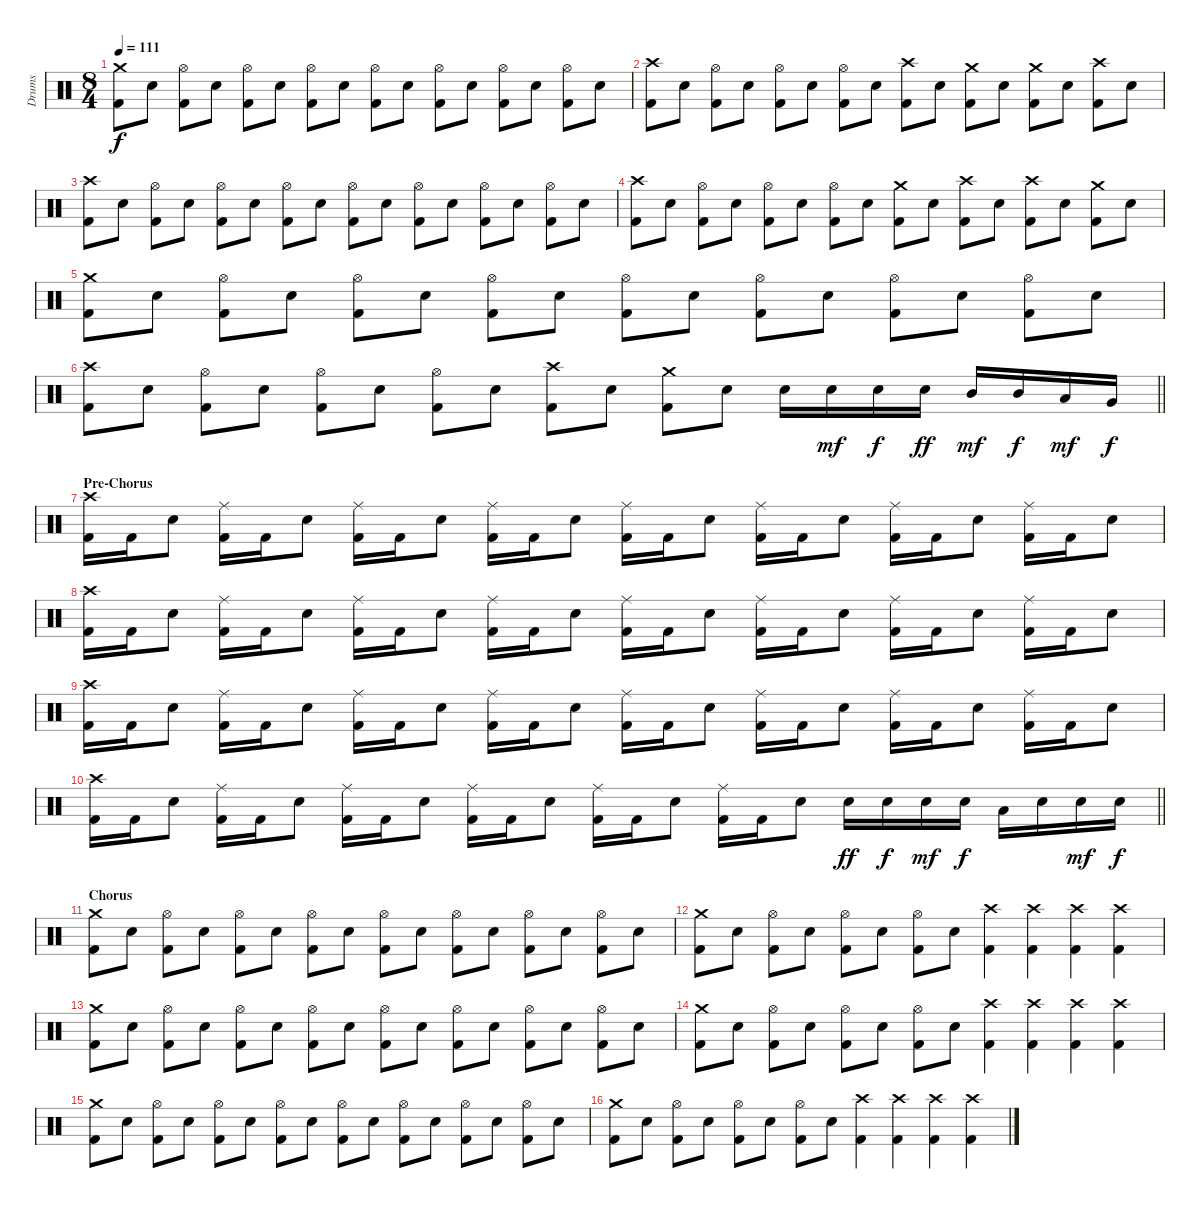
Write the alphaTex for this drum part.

\track ("Drums" "Drums") {instrument percussion}
\staff {score}
\articulation defaults
\ts (8 4)
\tempo 111
\clef neutral
\ks c
("Crash medium (hit)" "Kick (hit) 2").8{dy f} "Snare (hit) 2".8 ("Hi-Hat (open)" "Kick (hit) 2").8 "Snare (hit) 2".8 ("Hi-Hat (open)" "Kick (hit) 2").8 "Snare (hit) 2".8 ("Hi-Hat (open)" "Kick (hit) 2").8 "Snare (hit) 2".8 ("Hi-Hat (open)" "Kick (hit) 2").8 "Snare (hit) 2".8 ("Hi-Hat (open)" "Kick (hit) 2").8 "Snare (hit) 2".8 ("Hi-Hat (open)" "Kick (hit) 2").8 "Snare (hit) 2".8 ("Hi-Hat (open)" "Kick (hit) 2").8 "Snare (hit) 2".8 |
("Crash high (hit)" "Kick (hit) 2").8 "Snare (hit) 2".8 ("Hi-Hat (open)" "Kick (hit) 2").8 "Snare (hit) 2".8 ("Hi-Hat (open)" "Kick (hit) 2").8 "Snare (hit) 2".8 ("Hi-Hat (open)" "Kick (hit) 2").8 "Snare (hit) 2".8 ("Crash high (hit)" "Kick (hit) 2").8 "Snare (hit) 2".8 ("Crash medium (hit)" "Kick (hit) 2").8 "Snare (hit) 2".8 ("Crash medium (hit)" "Kick (hit) 2").8 "Snare (hit) 2".8 ("Crash high (hit)" "Kick (hit) 2").8 "Snare (hit) 2".8 |
("Crash high (hit)" "Kick (hit) 2").8 "Snare (hit) 2".8 ("Hi-Hat (open)" "Kick (hit) 2").8 "Snare (hit) 2".8 ("Hi-Hat (open)" "Kick (hit) 2").8 "Snare (hit) 2".8 ("Hi-Hat (open)" "Kick (hit) 2").8 "Snare (hit) 2".8 ("Hi-Hat (open)" "Kick (hit) 2").8 "Snare (hit) 2".8 ("Hi-Hat (open)" "Kick (hit) 2").8 "Snare (hit) 2".8 ("Hi-Hat (open)" "Kick (hit) 2").8 "Snare (hit) 2".8 ("Hi-Hat (open)" "Kick (hit) 2").8 "Snare (hit) 2".8 |
("Crash high (hit)" "Kick (hit) 2").8 "Snare (hit) 2".8 ("Hi-Hat (open)" "Kick (hit) 2").8 "Snare (hit) 2".8 ("Hi-Hat (open)" "Kick (hit) 2").8 "Snare (hit) 2".8 ("Hi-Hat (open)" "Kick (hit) 2").8 "Snare (hit) 2".8 ("Crash medium (hit)" "Kick (hit) 2").8 "Snare (hit) 2".8 ("Crash high (hit)" "Kick (hit) 2").8 "Snare (hit) 2".8 ("Crash high (hit)" "Kick (hit) 2").8 "Snare (hit) 2".8 ("Crash medium (hit)" "Kick (hit) 2").8 "Snare (hit) 2".8 |
("Crash medium (hit)" "Kick (hit) 2").8 "Snare (hit) 2".8 ("Hi-Hat (open)" "Kick (hit) 2").8 "Snare (hit) 2".8 ("Hi-Hat (open)" "Kick (hit) 2").8 "Snare (hit) 2".8 ("Hi-Hat (open)" "Kick (hit) 2").8 "Snare (hit) 2".8 ("Hi-Hat (open)" "Kick (hit) 2").8 "Snare (hit) 2".8 ("Hi-Hat (open)" "Kick (hit) 2").8 "Snare (hit) 2".8 ("Hi-Hat (open)" "Kick (hit) 2").8 "Snare (hit) 2".8 ("Hi-Hat (open)" "Kick (hit) 2").8 "Snare (hit) 2".8 |
\barLineRight lightlight
("Crash high (hit)" "Kick (hit) 2").8 "Snare (hit) 2".8 ("Hi-Hat (open)" "Kick (hit) 2").8 "Snare (hit) 2".8 ("Hi-Hat (open)" "Kick (hit) 2").8 "Snare (hit) 2".8 ("Hi-Hat (open)" "Kick (hit) 2").8 "Snare (hit) 2".8 ("Crash high (hit)" "Kick (hit) 2").8 "Snare (hit) 2".8 ("Crash medium (hit)" "Kick (hit) 2").8 "Snare (hit) 2".8 "Snare (hit) 2".16 "Snare (hit) 2".16{dy mf} "Snare (hit) 2".16{dy f} "Snare (hit) 2".16{dy ff} "Mid Tom (hit)".16{dy mf} "Mid Tom (hit)".16{dy f} "Low Tom (hit)".16{dy mf} "Very Low Tom (hit)".16{dy f} |
\section ("" "Pre-Chorus")
("Crash high (hit)" "Kick (hit) 2").16 "Kick (hit) 2".16 "Snare (hit) 2".8 ("Ride (middle)" "Kick (hit) 2").16 "Kick (hit) 2".16 "Snare (hit) 2".8 ("Ride (middle)" "Kick (hit) 2").16 "Kick (hit) 2".16 "Snare (hit) 2".8 ("Ride (middle)" "Kick (hit) 2").16 "Kick (hit) 2".16 "Snare (hit) 2".8 ("Ride (middle)" "Kick (hit) 2").16 "Kick (hit) 2".16 "Snare (hit) 2".8 ("Ride (middle)" "Kick (hit) 2").16 "Kick (hit) 2".16 "Snare (hit) 2".8 ("Ride (middle)" "Kick (hit) 2").16 "Kick (hit) 2".16 "Snare (hit) 2".8 ("Ride (middle)" "Kick (hit) 2").16 "Kick (hit) 2".16 "Snare (hit) 2".8 |
("Crash high (hit)" "Kick (hit) 2").16 "Kick (hit) 2".16 "Snare (hit) 2".8 ("Ride (middle)" "Kick (hit) 2").16 "Kick (hit) 2".16 "Snare (hit) 2".8 ("Ride (middle)" "Kick (hit) 2").16 "Kick (hit) 2".16 "Snare (hit) 2".8 ("Ride (middle)" "Kick (hit) 2").16 "Kick (hit) 2".16 "Snare (hit) 2".8 ("Ride (middle)" "Kick (hit) 2").16 "Kick (hit) 2".16 "Snare (hit) 2".8 ("Ride (middle)" "Kick (hit) 2").16 "Kick (hit) 2".16 "Snare (hit) 2".8 ("Ride (middle)" "Kick (hit) 2").16 "Kick (hit) 2".16 "Snare (hit) 2".8 ("Ride (middle)" "Kick (hit) 2").16 "Kick (hit) 2".16 "Snare (hit) 2".8 |
("Crash high (hit)" "Kick (hit) 2").16 "Kick (hit) 2".16 "Snare (hit) 2".8 ("Ride (middle)" "Kick (hit) 2").16 "Kick (hit) 2".16 "Snare (hit) 2".8 ("Ride (middle)" "Kick (hit) 2").16 "Kick (hit) 2".16 "Snare (hit) 2".8 ("Ride (middle)" "Kick (hit) 2").16 "Kick (hit) 2".16 "Snare (hit) 2".8 ("Ride (middle)" "Kick (hit) 2").16 "Kick (hit) 2".16 "Snare (hit) 2".8 ("Ride (middle)" "Kick (hit) 2").16 "Kick (hit) 2".16 "Snare (hit) 2".8 ("Ride (middle)" "Kick (hit) 2").16 "Kick (hit) 2".16 "Snare (hit) 2".8 ("Ride (middle)" "Kick (hit) 2").16 "Kick (hit) 2".16 "Snare (hit) 2".8 |
\barLineRight lightlight
("Crash high (hit)" "Kick (hit) 2").16 "Kick (hit) 2".16 "Snare (hit) 2".8 ("Ride (middle)" "Kick (hit) 2").16 "Kick (hit) 2".16 "Snare (hit) 2".8 ("Ride (middle)" "Kick (hit) 2").16 "Kick (hit) 2".16 "Snare (hit) 2".8 ("Ride (middle)" "Kick (hit) 2").16 "Kick (hit) 2".16 "Snare (hit) 2".8 ("Ride (middle)" "Kick (hit) 2").16 "Kick (hit) 2".16 "Snare (hit) 2".8 ("Ride (middle)" "Kick (hit) 2").16 "Kick (hit) 2".16 "Snare (hit) 2".8 "Snare (hit) 2".16{dy ff} "Snare (hit) 2".16{dy f} "Snare (hit) 2".16{dy mf} "Snare (hit) 2".16{dy f} "Low Tom (hit)".16 "Snare (hit) 2".16 "Snare (hit) 2".16{dy mf} "Snare (hit) 2".16{dy f} |
\section ("" "Chorus")
("Crash medium (hit)" "Kick (hit) 2").8 "Snare (hit) 2".8 ("Hi-Hat (open)" "Kick (hit) 2").8 "Snare (hit) 2".8 ("Hi-Hat (open)" "Kick (hit) 2").8 "Snare (hit) 2".8 ("Hi-Hat (open)" "Kick (hit) 2").8 "Snare (hit) 2".8 ("Hi-Hat (open)" "Kick (hit) 2").8 "Snare (hit) 2".8 ("Hi-Hat (open)" "Kick (hit) 2").8 "Snare (hit) 2".8 ("Hi-Hat (open)" "Kick (hit) 2").8 "Snare (hit) 2".8 ("Hi-Hat (open)" "Kick (hit) 2").8 "Snare (hit) 2".8 |
("Crash medium (hit)" "Kick (hit) 2").8 "Snare (hit) 2".8 ("Hi-Hat (open)" "Kick (hit) 2").8 "Snare (hit) 2".8 ("Hi-Hat (open)" "Kick (hit) 2").8 "Snare (hit) 2".8 ("Hi-Hat (open)" "Kick (hit) 2").8 "Snare (hit) 2".8 ("Crash high (hit)" "Kick (hit) 2").4 ("Crash high (hit)" "Kick (hit) 2").4 ("Crash high (hit)" "Kick (hit) 2").4 ("Crash high (hit)" "Kick (hit) 2").4 |
("Crash medium (hit)" "Kick (hit) 2").8 "Snare (hit) 2".8 ("Hi-Hat (open)" "Kick (hit) 2").8 "Snare (hit) 2".8 ("Hi-Hat (open)" "Kick (hit) 2").8 "Snare (hit) 2".8 ("Hi-Hat (open)" "Kick (hit) 2").8 "Snare (hit) 2".8 ("Hi-Hat (open)" "Kick (hit) 2").8 "Snare (hit) 2".8 ("Hi-Hat (open)" "Kick (hit) 2").8 "Snare (hit) 2".8 ("Hi-Hat (open)" "Kick (hit) 2").8 "Snare (hit) 2".8 ("Hi-Hat (open)" "Kick (hit) 2").8 "Snare (hit) 2".8 |
("Crash medium (hit)" "Kick (hit) 2").8 "Snare (hit) 2".8 ("Hi-Hat (open)" "Kick (hit) 2").8 "Snare (hit) 2".8 ("Hi-Hat (open)" "Kick (hit) 2").8 "Snare (hit) 2".8 ("Hi-Hat (open)" "Kick (hit) 2").8 "Snare (hit) 2".8 ("Crash high (hit)" "Kick (hit) 2").4 ("Crash high (hit)" "Kick (hit) 2").4 ("Crash high (hit)" "Kick (hit) 2").4 ("Crash high (hit)" "Kick (hit) 2").4 |
("Crash medium (hit)" "Kick (hit) 2").8 "Snare (hit) 2".8 ("Hi-Hat (open)" "Kick (hit) 2").8 "Snare (hit) 2".8 ("Hi-Hat (open)" "Kick (hit) 2").8 "Snare (hit) 2".8 ("Hi-Hat (open)" "Kick (hit) 2").8 "Snare (hit) 2".8 ("Hi-Hat (open)" "Kick (hit) 2").8 "Snare (hit) 2".8 ("Hi-Hat (open)" "Kick (hit) 2").8 "Snare (hit) 2".8 ("Hi-Hat (open)" "Kick (hit) 2").8 "Snare (hit) 2".8 ("Hi-Hat (open)" "Kick (hit) 2").8 "Snare (hit) 2".8 |
("Crash medium (hit)" "Kick (hit) 2").8 "Snare (hit) 2".8 ("Hi-Hat (open)" "Kick (hit) 2").8 "Snare (hit) 2".8 ("Hi-Hat (open)" "Kick (hit) 2").8 "Snare (hit) 2".8 ("Hi-Hat (open)" "Kick (hit) 2").8 "Snare (hit) 2".8 ("Crash high (hit)" "Kick (hit) 2").4 ("Crash high (hit)" "Kick (hit) 2").4 ("Crash high (hit)" "Kick (hit) 2").4 ("Crash high (hit)" "Kick (hit) 2").4
